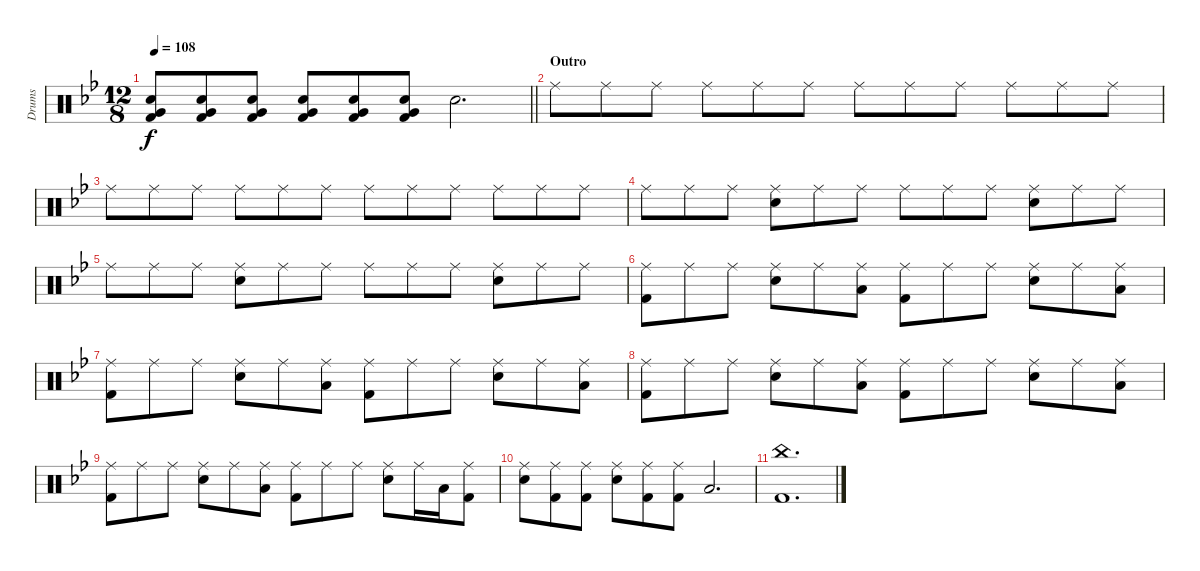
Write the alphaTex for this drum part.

\track ("Drums" "Drums") {instrument percussion}
\staff {score}
\articulation defaults
\ts (12 8)
\tempo 108
\clef neutral
\barLineRight lightlight
\ks gminor
("Electric Snare (hit)" "Very Low Tom (hit)" "Kick (hit) 2").8{dy f} ("Electric Snare (hit)" "Very Low Tom (hit)" "Kick (hit) 2").8 ("Electric Snare (hit)" "Very Low Tom (hit)" "Kick (hit) 2").8 ("Electric Snare (hit)" "Very Low Tom (hit)" "Kick (hit) 2").8 ("Electric Snare (hit)" "Very Low Tom (hit)" "Kick (hit) 2").8 ("Electric Snare (hit)" "Very Low Tom (hit)" "Kick (hit) 2").8 "Electric Snare (hit)".2{d} |
\section ("" "Outro")
"Ride (middle)".8 "Ride (middle)".8 "Ride (middle)".8 "Ride (middle)".8 "Ride (middle)".8 "Ride (middle)".8 "Ride (middle)".8 "Ride (middle)".8 "Ride (middle)".8 "Ride (middle)".8 "Ride (middle)".8 "Ride (middle)".8 |
"Ride (middle)".8 "Ride (middle)".8 "Ride (middle)".8 "Ride (middle)".8 "Ride (middle)".8 "Ride (middle)".8 "Ride (middle)".8 "Ride (middle)".8 "Ride (middle)".8 "Ride (middle)".8 "Ride (middle)".8 "Ride (middle)".8 |
"Ride (middle)".8 "Ride (middle)".8 "Ride (middle)".8 ("Ride (middle)" "Electric Snare (hit)").8 "Ride (middle)".8 "Ride (middle)".8 "Ride (middle)".8 "Ride (middle)".8 "Ride (middle)".8 ("Ride (middle)" "Electric Snare (hit)").8 "Ride (middle)".8 "Ride (middle)".8 |
"Ride (middle)".8 "Ride (middle)".8 "Ride (middle)".8 ("Ride (middle)" "Electric Snare (hit)").8 "Ride (middle)".8 "Ride (middle)".8 "Ride (middle)".8 "Ride (middle)".8 "Ride (middle)".8 ("Ride (middle)" "Electric Snare (hit)").8 "Ride (middle)".8 "Ride (middle)".8 |
("Ride (middle)" "Kick (hit) 2").8 "Ride (middle)".8 "Ride (middle)".8 ("Ride (middle)" "Electric Snare (hit)").8 "Ride (middle)".8 ("Ride (middle)" "Low Tom (hit)").8 ("Ride (middle)" "Kick (hit) 2").8 "Ride (middle)".8 "Ride (middle)".8 ("Ride (middle)" "Electric Snare (hit)").8 "Ride (middle)".8 ("Ride (middle)" "Low Tom (hit)").8 |
("Ride (middle)" "Kick (hit) 2").8 "Ride (middle)".8 "Ride (middle)".8 ("Ride (middle)" "Electric Snare (hit)").8 "Ride (middle)".8 ("Ride (middle)" "Low Tom (hit)").8 ("Ride (middle)" "Kick (hit) 2").8 "Ride (middle)".8 "Ride (middle)".8 ("Ride (middle)" "Electric Snare (hit)").8 "Ride (middle)".8 ("Ride (middle)" "Low Tom (hit)").8 |
("Ride (middle)" "Kick (hit) 2").8 "Ride (middle)".8 "Ride (middle)".8 ("Ride (middle)" "Electric Snare (hit)").8 "Ride (middle)".8 ("Ride (middle)" "Low Tom (hit)").8 ("Ride (middle)" "Kick (hit) 2").8 "Ride (middle)".8 "Ride (middle)".8 ("Ride (middle)" "Electric Snare (hit)").8 "Ride (middle)".8 ("Ride (middle)" "Low Tom (hit)").8 |
("Ride (middle)" "Kick (hit) 2").8 "Ride (middle)".8 "Ride (middle)".8 ("Ride (middle)" "Electric Snare (hit)").8 "Ride (middle)".8 ("Ride (middle)" "Low Tom (hit)").8 ("Ride (middle)" "Kick (hit) 2").8 "Ride (middle)".8 "Ride (middle)".8 ("Ride (middle)" "Electric Snare (hit)").8 "Ride (middle)".16 "Low Tom (hit)".16 ("Ride (middle)" "Kick (hit) 2").8 |
("Ride (middle)" "Electric Snare (hit)").8 ("Ride (middle)" "Kick (hit) 2").8 ("Ride (middle)" "Kick (hit) 2").8 ("Ride (middle)" "Electric Snare (hit)").8 ("Ride (middle)" "Kick (hit) 2").8 ("Ride (middle)" "Kick (hit) 2").8 "Low Tom (hit)".2{d} |
("China (hit)" "Kick (hit) 2").1{d}
